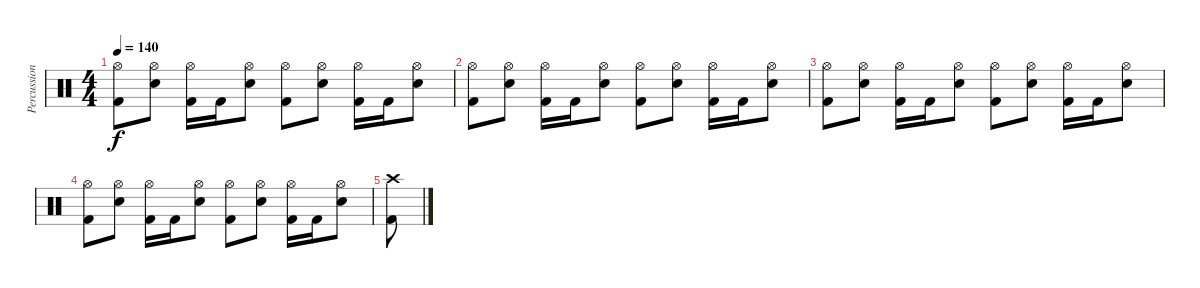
\track ("Percussion" "Percussion") {instrument percussion}
\staff {score}
\articulation defaults
\ts (4 4)
\tempo 140
\clef neutral
\ks c
("Hi-Hat (open)" "Kick (hit) 2").8{dy f} ("Hi-Hat (open)" "Electric Snare (hit)").8 ("Hi-Hat (open)" "Kick (hit) 2").16 "Kick (hit) 2".16 ("Hi-Hat (open)" "Electric Snare (hit)").8 ("Hi-Hat (open)" "Kick (hit) 2").8 ("Hi-Hat (open)" "Electric Snare (hit)").8 ("Hi-Hat (open)" "Kick (hit) 2").16 "Kick (hit) 2".16 ("Hi-Hat (open)" "Electric Snare (hit)").8 |
("Hi-Hat (open)" "Kick (hit) 2").8 ("Hi-Hat (open)" "Electric Snare (hit)").8 ("Hi-Hat (open)" "Kick (hit) 2").16 "Kick (hit) 2".16 ("Hi-Hat (open)" "Electric Snare (hit)").8 ("Hi-Hat (open)" "Kick (hit) 2").8 ("Hi-Hat (open)" "Electric Snare (hit)").8 ("Hi-Hat (open)" "Kick (hit) 2").16 "Kick (hit) 2".16 ("Hi-Hat (open)" "Electric Snare (hit)").8 |
("Hi-Hat (open)" "Kick (hit) 2").8 ("Hi-Hat (open)" "Electric Snare (hit)").8 ("Hi-Hat (open)" "Kick (hit) 2").16 "Kick (hit) 2".16 ("Hi-Hat (open)" "Electric Snare (hit)").8 ("Hi-Hat (open)" "Kick (hit) 2").8 ("Hi-Hat (open)" "Electric Snare (hit)").8 ("Hi-Hat (open)" "Kick (hit) 2").16 "Kick (hit) 2".16 ("Hi-Hat (open)" "Electric Snare (hit)").8 |
("Hi-Hat (open)" "Kick (hit) 2").8 ("Hi-Hat (open)" "Electric Snare (hit)").8 ("Hi-Hat (open)" "Kick (hit) 2").16 "Kick (hit) 2".16 ("Hi-Hat (open)" "Electric Snare (hit)").8 ("Hi-Hat (open)" "Kick (hit) 2").8 ("Hi-Hat (open)" "Electric Snare (hit)").8 ("Hi-Hat (open)" "Kick (hit) 2").16 "Kick (hit) 2".16 ("Hi-Hat (open)" "Electric Snare (hit)").8 |
("Crash high (hit)" "Kick (hit) 2").8
